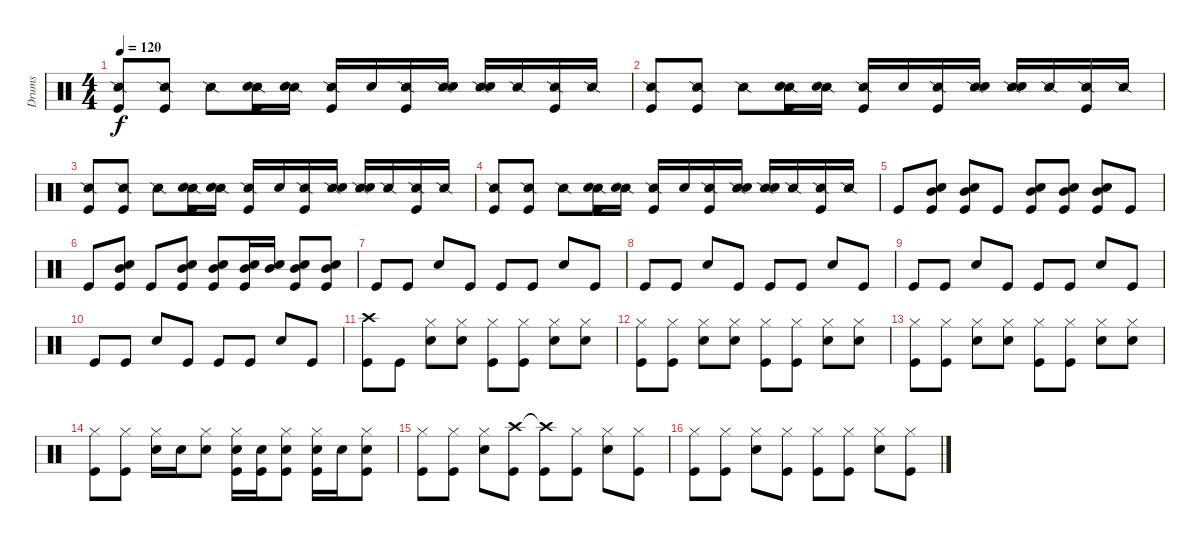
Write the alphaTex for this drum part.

\track ("Drums" "Drums") {instrument percussion}
\staff {score}
\articulation defaults
\ts (4 4)
\tempo 120
\clef neutral
\ks c
("Snare (side stick) 2" "Kick (hit)").8{dy f} ("Snare (side stick) 2" "Kick (hit)").8 "Snare (side stick) 2".8 ("Snare (side stick) 2" "Snare (hit) 2" "Kick (hit)").16 ("Snare (side stick) 2" "Snare (hit) 2").16 ("Snare (side stick) 2" "Kick (hit)").16 "Snare (hit) 2".16 ("Snare (side stick) 2" "Kick (hit)").16 ("Snare (side stick) 2" "Snare (hit) 2").16 ("Snare (side stick) 2" "Snare (hit) 2").16 "Snare (side stick) 2".16 ("Snare (side stick) 2" "Kick (hit)").16 "Snare (side stick) 2".16 |
("Snare (side stick) 2" "Kick (hit)").8 ("Snare (side stick) 2" "Kick (hit)").8 "Snare (side stick) 2".8 ("Snare (side stick) 2" "Snare (hit) 2" "Kick (hit)").16 ("Snare (side stick) 2" "Snare (hit) 2").16 ("Snare (side stick) 2" "Kick (hit)").16 "Snare (hit) 2".16 ("Snare (side stick) 2" "Kick (hit)").16 ("Snare (side stick) 2" "Snare (hit) 2").16 ("Snare (side stick) 2" "Snare (hit) 2").16 "Snare (side stick) 2".16 ("Snare (side stick) 2" "Kick (hit)").16 "Snare (side stick) 2".16 |
("Snare (side stick) 2" "Kick (hit)").8 ("Snare (side stick) 2" "Kick (hit)").8 "Snare (side stick) 2".8 ("Snare (side stick) 2" "Snare (hit) 2" "Kick (hit)").16 ("Snare (side stick) 2" "Snare (hit) 2").16 ("Snare (side stick) 2" "Kick (hit)").16 "Snare (hit) 2".16 ("Snare (side stick) 2" "Kick (hit)").16 ("Snare (side stick) 2" "Snare (hit) 2").16 ("Snare (side stick) 2" "Snare (hit) 2").16 "Snare (side stick) 2".16 ("Snare (side stick) 2" "Kick (hit)").16 "Snare (side stick) 2".16 |
("Snare (side stick) 2" "Kick (hit)").8 ("Snare (side stick) 2" "Kick (hit)").8 "Snare (side stick) 2".8 ("Snare (side stick) 2" "Snare (hit) 2" "Kick (hit)").16 ("Snare (side stick) 2" "Snare (hit) 2").16 ("Snare (side stick) 2" "Kick (hit)").16 "Snare (hit) 2".16 ("Snare (side stick) 2" "Kick (hit)").16 ("Snare (side stick) 2" "Snare (hit) 2").16 ("Snare (side stick) 2" "Snare (hit) 2").16 "Snare (side stick) 2".16 ("Snare (side stick) 2" "Kick (hit)").16 "Snare (side stick) 2".16 |
"Kick (hit)".8 ("Snare (hit) 2" "Mid Tom (hit)" "Kick (hit)").8 ("Snare (hit) 2" "Mid Tom (hit)" "Kick (hit)").8 "Kick (hit)".8 ("Snare (hit) 2" "Mid Tom (hit)" "Kick (hit)").8 ("Snare (hit) 2" "Mid Tom (hit)" "Kick (hit)").8 ("Snare (hit) 2" "Mid Tom (hit)" "Kick (hit)").8 "Kick (hit)".8 |
"Kick (hit)".8 ("Snare (hit) 2" "Mid Tom (hit)" "Kick (hit)").8 "Kick (hit)".8 ("Snare (hit) 2" "Mid Tom (hit)" "Kick (hit)").8 ("Snare (hit) 2" "Mid Tom (hit)" "Kick (hit)").8 ("Snare (hit) 2" "Mid Tom (hit)" "Kick (hit)").16 ("Snare (hit) 2" "Mid Tom (hit)").16 ("Snare (hit) 2" "Mid Tom (hit)" "Kick (hit)").8 ("Snare (hit) 2" "Mid Tom (hit)" "Kick (hit)").8 |
"Kick (hit)".8 "Kick (hit)".8 "Snare (hit) 2".8 "Kick (hit)".8 "Kick (hit)".8 "Kick (hit)".8 "Snare (hit) 2".8 "Kick (hit)".8 |
"Kick (hit)".8 "Kick (hit)".8 "Snare (hit) 2".8 "Kick (hit)".8 "Kick (hit)".8 "Kick (hit)".8 "Snare (hit) 2".8 "Kick (hit)".8 |
"Kick (hit)".8 "Kick (hit)".8 "Snare (hit) 2".8 "Kick (hit)".8 "Kick (hit)".8 "Kick (hit)".8 "Snare (hit) 2".8 "Kick (hit)".8 |
"Kick (hit)".8 "Kick (hit)".8 "Snare (hit) 2".8 "Kick (hit)".8 "Kick (hit)".8 "Kick (hit)".8 "Snare (hit) 2".8 "Kick (hit)".8 |
("Crash high (hit)" "Kick (hit)").8 "Kick (hit)".8 ("Hi-Hat (closed)" "Snare (hit) 2").8 ("Hi-Hat (closed)" "Snare (hit) 2").8 ("Hi-Hat (closed)" "Kick (hit)").8 ("Hi-Hat (closed)" "Kick (hit)").8 ("Hi-Hat (closed)" "Snare (hit) 2").8 ("Hi-Hat (closed)" "Snare (hit) 2").8 |
("Hi-Hat (closed)" "Kick (hit)").8 ("Hi-Hat (closed)" "Kick (hit)").8 ("Hi-Hat (closed)" "Snare (hit) 2").8 ("Hi-Hat (closed)" "Snare (hit) 2").8 ("Hi-Hat (closed)" "Kick (hit)").8 ("Hi-Hat (closed)" "Kick (hit)").8 ("Hi-Hat (closed)" "Snare (hit) 2").8 ("Hi-Hat (closed)" "Snare (hit) 2").8 |
("Hi-Hat (closed)" "Kick (hit)").8 ("Hi-Hat (closed)" "Kick (hit)").8 ("Hi-Hat (closed)" "Snare (hit) 2").8 ("Hi-Hat (closed)" "Snare (hit) 2").8 ("Hi-Hat (closed)" "Kick (hit)").8 ("Hi-Hat (closed)" "Kick (hit)").8 ("Hi-Hat (closed)" "Snare (hit) 2").8 ("Hi-Hat (closed)" "Snare (hit) 2").8 |
("Hi-Hat (closed)" "Kick (hit)").8 ("Hi-Hat (closed)" "Kick (hit)").8 ("Hi-Hat (closed)" "Snare (hit) 2").16 "Snare (hit) 2".16 ("Hi-Hat (closed)" "Snare (hit) 2").8 ("Hi-Hat (closed)" "Snare (hit) 2" "Kick (hit)").16 ("Snare (hit) 2" "Kick (hit)").16 ("Hi-Hat (closed)" "Snare (hit) 2" "Kick (hit)").8 ("Hi-Hat (closed)" "Snare (hit) 2" "Kick (hit)").16 "Snare (hit) 2".16 ("Hi-Hat (closed)" "Snare (hit) 2" "Kick (hit)").8 |
("Hi-Hat (closed)" "Kick (hit)").8 ("Hi-Hat (closed)" "Kick (hit)").8 ("Hi-Hat (closed)" "Snare (hit) 2").8 ("Crash high (hit)" "Kick (hit)").8 ("Crash high (hit)"{t} "Kick (hit)").8 ("Hi-Hat (closed)" "Kick (hit)").8 ("Hi-Hat (closed)" "Snare (hit) 2").8 ("Hi-Hat (closed)" "Kick (hit)").8 |
("Hi-Hat (closed)" "Kick (hit)").8 ("Hi-Hat (closed)" "Kick (hit)").8 ("Hi-Hat (closed)" "Snare (hit) 2").8 ("Hi-Hat (closed)" "Kick (hit)").8 ("Hi-Hat (closed)" "Kick (hit)").8 ("Hi-Hat (closed)" "Kick (hit)").8 ("Hi-Hat (closed)" "Snare (hit) 2").8 ("Hi-Hat (closed)" "Kick (hit)").8
